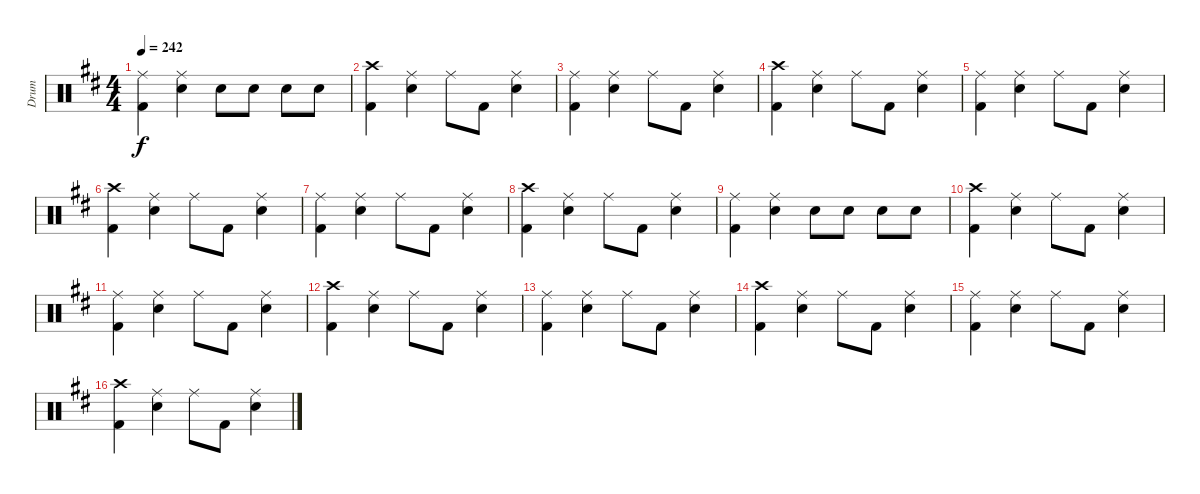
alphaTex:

\track ("Drum" "Drum") {instrument percussion}
\staff {score}
\articulation defaults
\ts (4 4)
\tempo 242
\clef neutral
\ks d
("Ride (middle)" "Kick (hit) 2").4{dy f} ("Ride (middle)" "Snare (hit) 2").4 "Snare (hit) 2".8 "Snare (hit) 2".8 "Snare (hit) 2".8 "Snare (hit) 2".8 |
("Crash high (hit)" "Kick (hit) 2").4 ("Ride (middle)" "Snare (hit) 2").4 "Ride (middle)".8 "Kick (hit) 2".8 ("Ride (middle)" "Snare (hit) 2").4 |
("Ride (middle)" "Kick (hit) 2").4 ("Ride (middle)" "Snare (hit) 2").4 "Ride (middle)".8 "Kick (hit) 2".8 ("Ride (middle)" "Snare (hit) 2").4 |
("Crash high (hit)" "Kick (hit) 2").4 ("Ride (middle)" "Snare (hit) 2").4 "Ride (middle)".8 "Kick (hit) 2".8 ("Ride (middle)" "Snare (hit) 2").4 |
("Ride (middle)" "Kick (hit) 2").4 ("Ride (middle)" "Snare (hit) 2").4 "Ride (middle)".8 "Kick (hit) 2".8 ("Ride (middle)" "Snare (hit) 2").4 |
("Crash high (hit)" "Kick (hit) 2").4 ("Ride (middle)" "Snare (hit) 2").4 "Ride (middle)".8 "Kick (hit) 2".8 ("Ride (middle)" "Snare (hit) 2").4 |
("Ride (middle)" "Kick (hit) 2").4 ("Ride (middle)" "Snare (hit) 2").4 "Ride (middle)".8 "Kick (hit) 2".8 ("Ride (middle)" "Snare (hit) 2").4 |
("Crash high (hit)" "Kick (hit) 2").4 ("Ride (middle)" "Snare (hit) 2").4 "Ride (middle)".8 "Kick (hit) 2".8 ("Ride (middle)" "Snare (hit) 2").4 |
("Ride (middle)" "Kick (hit) 2").4 ("Ride (middle)" "Snare (hit) 2").4 "Snare (hit) 2".8 "Snare (hit) 2".8 "Snare (hit) 2".8 "Snare (hit) 2".8 |
("Crash high (hit)" "Kick (hit) 2").4 ("Ride (middle)" "Snare (hit) 2").4 "Ride (middle)".8 "Kick (hit) 2".8 ("Ride (middle)" "Snare (hit) 2").4 |
("Ride (middle)" "Kick (hit) 2").4 ("Ride (middle)" "Snare (hit) 2").4 "Ride (middle)".8 "Kick (hit) 2".8 ("Ride (middle)" "Snare (hit) 2").4 |
("Crash high (hit)" "Kick (hit) 2").4 ("Ride (middle)" "Snare (hit) 2").4 "Ride (middle)".8 "Kick (hit) 2".8 ("Ride (middle)" "Snare (hit) 2").4 |
("Ride (middle)" "Kick (hit) 2").4 ("Ride (middle)" "Snare (hit) 2").4 "Ride (middle)".8 "Kick (hit) 2".8 ("Ride (middle)" "Snare (hit) 2").4 |
("Crash high (hit)" "Kick (hit) 2").4 ("Ride (middle)" "Snare (hit) 2").4 "Ride (middle)".8 "Kick (hit) 2".8 ("Ride (middle)" "Snare (hit) 2").4 |
("Ride (middle)" "Kick (hit) 2").4 ("Ride (middle)" "Snare (hit) 2").4 "Ride (middle)".8 "Kick (hit) 2".8 ("Ride (middle)" "Snare (hit) 2").4 |
("Crash high (hit)" "Kick (hit) 2").4 ("Ride (middle)" "Snare (hit) 2").4 "Ride (middle)".8 "Kick (hit) 2".8 ("Ride (middle)" "Snare (hit) 2").4
